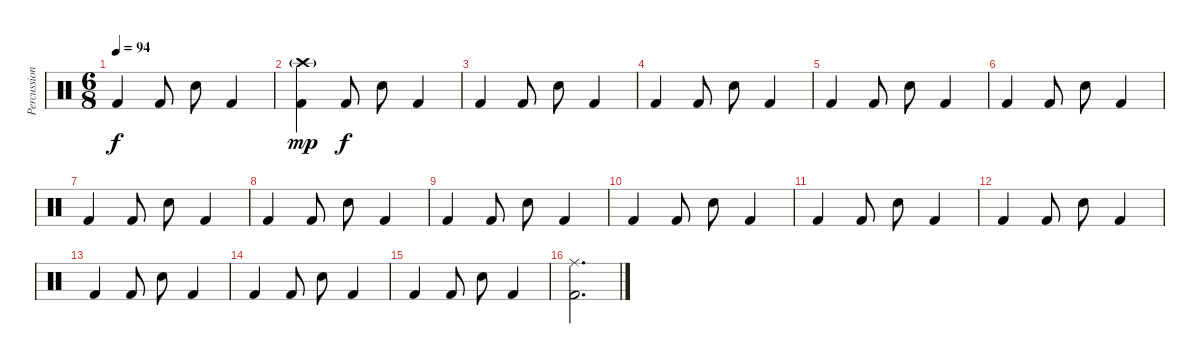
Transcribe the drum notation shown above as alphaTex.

\track ("Percussion" "Percussion") {instrument percussion}
\staff {score}
\articulation defaults
\ts (6 8)
\tempo 94
\clef neutral
\ks c "Kick (hit) 2".4{dy f} "Kick (hit) 2".8 "Snare (hit) 2".8 "Kick (hit) 2".4
|
("Crash high (hit)"{g} "Kick (hit) 2").4{dy mp} "Kick (hit) 2".8{dy f} "Snare (hit) 2".8 "Kick (hit) 2".4 |
"Kick (hit) 2".4 "Kick (hit) 2".8 "Snare (hit) 2".8 "Kick (hit) 2".4 |
"Kick (hit) 2".4 "Kick (hit) 2".8 "Snare (hit) 2".8 "Kick (hit) 2".4 |
"Kick (hit) 2".4 "Kick (hit) 2".8 "Snare (hit) 2".8 "Kick (hit) 2".4 |
"Kick (hit) 2".4 "Kick (hit) 2".8 "Snare (hit) 2".8 "Kick (hit) 2".4 |
"Kick (hit) 2".4 "Kick (hit) 2".8 "Snare (hit) 2".8 "Kick (hit) 2".4 |
"Kick (hit) 2".4 "Kick (hit) 2".8 "Snare (hit) 2".8 "Kick (hit) 2".4 |
"Kick (hit) 2".4 "Kick (hit) 2".8 "Snare (hit) 2".8 "Kick (hit) 2".4 |
"Kick (hit) 2".4 "Kick (hit) 2".8 "Snare (hit) 2".8 "Kick (hit) 2".4 |
"Kick (hit) 2".4 "Kick (hit) 2".8 "Snare (hit) 2".8 "Kick (hit) 2".4 |
"Kick (hit) 2".4 "Kick (hit) 2".8 "Snare (hit) 2".8 "Kick (hit) 2".4 |
"Kick (hit) 2".4 "Kick (hit) 2".8 "Snare (hit) 2".8 "Kick (hit) 2".4 |
"Kick (hit) 2".4 "Kick (hit) 2".8 "Snare (hit) 2".8 "Kick (hit) 2".4 |
"Kick (hit) 2".4 "Kick (hit) 2".8 "Snare (hit) 2".8 "Kick (hit) 2".4 |
("Ride (middle)" "Kick (hit) 2").2{d}
